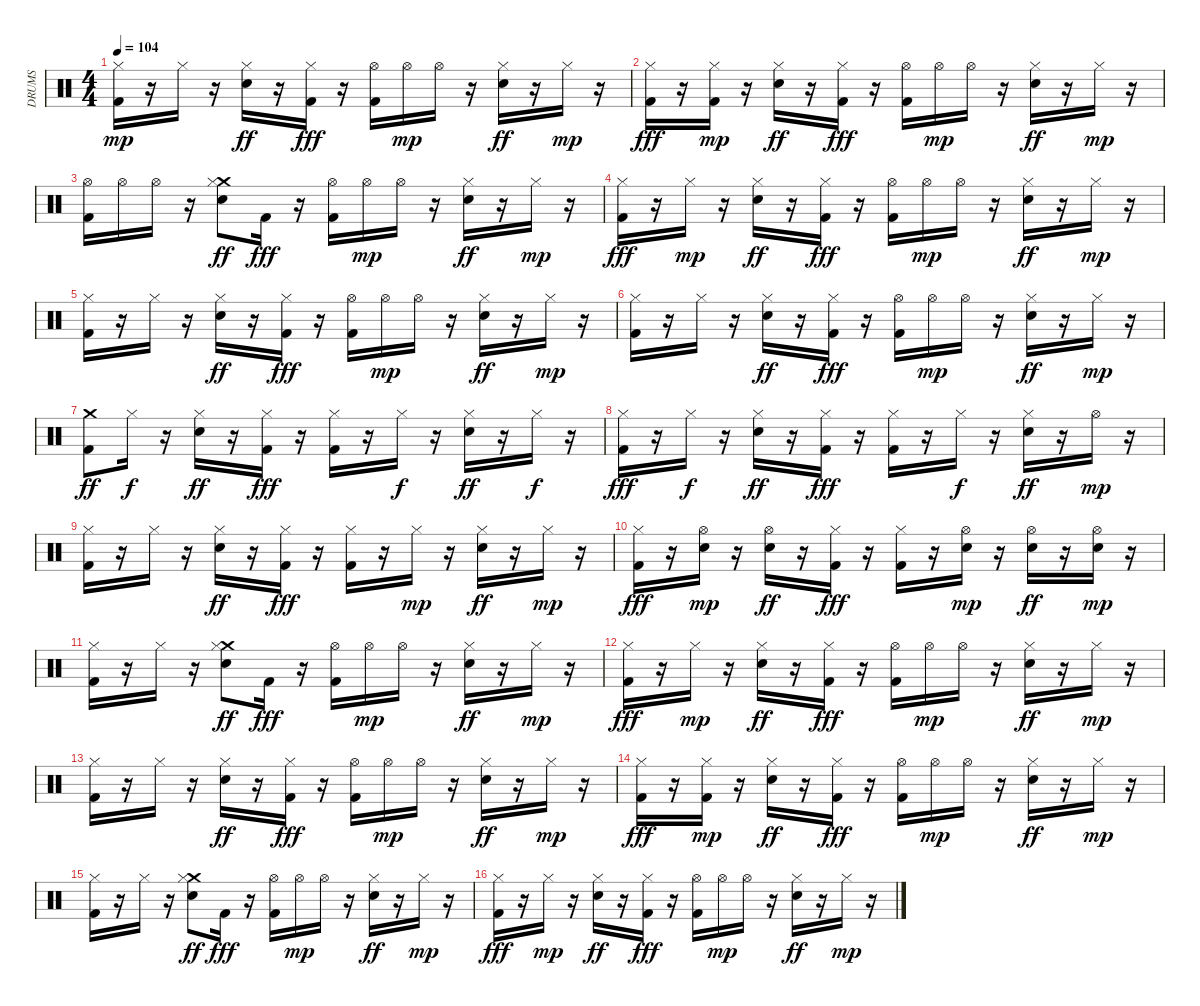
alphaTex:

\track ("DRUMS" "DRUMS") {instrument percussion}
\staff {score}
\articulation defaults
\ts (4 4)
\tempo 104
\clef neutral
\ks c
("Kick (hit) 2" "Hi-Hat (closed)").16{dy mp} r.16 "Hi-Hat (closed)".16 r.16 ("Hi-Hat (closed)" "Snare (hit) 2").16{dy ff} r.16 ("Hi-Hat (closed)" "Kick (hit) 2").16{dy fff} r.16 ("Hi-Hat (open)" "Kick (hit) 2").16 "Hi-Hat (open)".16{dy mp} "Hi-Hat (open)".16 r.16 ("Hi-Hat (closed)" "Snare (hit) 2").16{dy ff} r.16 "Hi-Hat (closed)".16{dy mp} r.16 |
("Hi-Hat (closed)" "Kick (hit) 2").16{dy fff} r.16 ("Kick (hit) 2" "Hi-Hat (closed)").16{dy mp} r.16 ("Hi-Hat (closed)" "Snare (hit) 2").16{dy ff} r.16 ("Hi-Hat (closed)" "Kick (hit) 2").16{dy fff} r.16 ("Hi-Hat (open)" "Kick (hit) 2").16 "Hi-Hat (open)".16{dy mp} "Hi-Hat (open)".16 r.16 ("Hi-Hat (closed)" "Snare (hit) 2").16{dy ff} r.16 "Hi-Hat (closed)".16{dy mp} r.16 |
("Kick (hit) 2" "Hi-Hat (open)").16 "Hi-Hat (open)".16 "Hi-Hat (open)".16 r.16 ("Crash medium (hit)" "Hi-Hat (closed)" "Snare (hit) 2").8{dy ff} "Kick (hit) 2".16{dy fff} r.16 ("Hi-Hat (open)" "Kick (hit) 2").16 "Hi-Hat (open)".16{dy mp} "Hi-Hat (open)".16 r.16 ("Hi-Hat (closed)" "Snare (hit) 2").16{dy ff} r.16 "Hi-Hat (closed)".16{dy mp} r.16 |
("Hi-Hat (closed)" "Kick (hit) 2").16{dy fff} r.16 "Hi-Hat (closed)".16{dy mp} r.16 ("Hi-Hat (closed)" "Snare (hit) 2").16{dy ff} r.16 ("Hi-Hat (closed)" "Kick (hit) 2").16{dy fff} r.16 ("Hi-Hat (open)" "Kick (hit) 2").16 "Hi-Hat (open)".16{dy mp} "Hi-Hat (open)".16 r.16 ("Hi-Hat (closed)" "Snare (hit) 2").16{dy ff} r.16 "Hi-Hat (closed)".16{dy mp} r.16 |
("Kick (hit) 2" "Hi-Hat (closed)").16 r.16 "Hi-Hat (closed)".16 r.16 ("Hi-Hat (closed)" "Snare (hit) 2").16{dy ff} r.16 ("Hi-Hat (closed)" "Kick (hit) 2").16{dy fff} r.16 ("Hi-Hat (open)" "Kick (hit) 2").16 "Hi-Hat (open)".16{dy mp} "Hi-Hat (open)".16 r.16 ("Hi-Hat (closed)" "Snare (hit) 2").16{dy ff} r.16 "Hi-Hat (closed)".16{dy mp} r.16 |
("Kick (hit) 2" "Hi-Hat (closed)").16 r.16 "Hi-Hat (closed)".16 r.16 ("Hi-Hat (closed)" "Snare (hit) 2").16{dy ff} r.16 ("Hi-Hat (closed)" "Kick (hit) 2").16{dy fff} r.16 ("Hi-Hat (open)" "Kick (hit) 2").16 "Hi-Hat (open)".16{dy mp} "Hi-Hat (open)".16 r.16 ("Hi-Hat (closed)" "Snare (hit) 2").16{dy ff} r.16 "Hi-Hat (closed)".16{dy mp} r.16 |
("Kick (hit) 2" "Crash medium (hit)").8{dy ff} "Hi-Hat (closed)".16{dy f} r.16 ("Hi-Hat (closed)" "Snare (hit) 2").16{dy ff} r.16 ("Hi-Hat (closed)" "Kick (hit) 2").16{dy fff} r.16 ("Hi-Hat (closed)" "Kick (hit) 2").16 r.16 "Hi-Hat (closed)".16{dy f} r.16 ("Hi-Hat (closed)" "Snare (hit) 2").16{dy ff} r.16 "Hi-Hat (closed)".16{dy f} r.16 |
("Kick (hit) 2" "Hi-Hat (closed)").16{dy fff} r.16 "Hi-Hat (closed)".16{dy f} r.16 ("Hi-Hat (closed)" "Snare (hit) 2").16{dy ff} r.16 ("Hi-Hat (closed)" "Kick (hit) 2").16{dy fff} r.16 ("Hi-Hat (closed)" "Kick (hit) 2").16 r.16 "Hi-Hat (closed)".16{dy f} r.16 ("Hi-Hat (closed)" "Snare (hit) 2").16{dy ff} r.16 "Hi-Hat (open)".16{dy mp} r.16 |
("Kick (hit) 2" "Hi-Hat (closed)").16 r.16 "Hi-Hat (closed)".16 r.16 ("Hi-Hat (closed)" "Snare (hit) 2").16{dy ff} r.16 ("Hi-Hat (closed)" "Kick (hit) 2").16{dy fff} r.16 ("Hi-Hat (closed)" "Kick (hit) 2").16 r.16 "Hi-Hat (closed)".16{dy mp} r.16 ("Hi-Hat (closed)" "Snare (hit) 2").16{dy ff} r.16 "Hi-Hat (closed)".16{dy mp} r.16 |
("Hi-Hat (closed)" "Kick (hit) 2").16{dy fff} r.16 ("Snare (hit) 2" "Hi-Hat (open)").16{dy mp} r.16 ("Hi-Hat (open)" "Snare (hit) 2").16{dy ff} r.16 ("Hi-Hat (closed)" "Kick (hit) 2").16{dy fff} r.16 ("Hi-Hat (closed)" "Kick (hit) 2").16 r.16 ("Snare (hit) 2" "Hi-Hat (open)").16{dy mp} r.16 ("Hi-Hat (open)" "Snare (hit) 2").16{dy ff} r.16 ("Snare (hit) 2" "Hi-Hat (open)").16{dy mp} r.16 |
("Kick (hit) 2" "Hi-Hat (closed)").16 r.16 "Hi-Hat (closed)".16 r.16 ("Crash medium (hit)" "Hi-Hat (closed)" "Snare (hit) 2").8{dy ff} "Kick (hit) 2".16{dy fff} r.16 ("Hi-Hat (open)" "Kick (hit) 2").16 "Hi-Hat (open)".16{dy mp} "Hi-Hat (open)".16 r.16 ("Hi-Hat (closed)" "Snare (hit) 2").16{dy ff} r.16 "Hi-Hat (closed)".16{dy mp} r.16 |
("Hi-Hat (closed)" "Kick (hit) 2").16{dy fff} r.16 "Hi-Hat (closed)".16{dy mp} r.16 ("Hi-Hat (closed)" "Snare (hit) 2").16{dy ff} r.16 ("Hi-Hat (closed)" "Kick (hit) 2").16{dy fff} r.16 ("Hi-Hat (open)" "Kick (hit) 2").16 "Hi-Hat (open)".16{dy mp} "Hi-Hat (open)".16 r.16 ("Hi-Hat (closed)" "Snare (hit) 2").16{dy ff} r.16 "Hi-Hat (closed)".16{dy mp} r.16 |
("Kick (hit) 2" "Hi-Hat (closed)").16 r.16 "Hi-Hat (closed)".16 r.16 ("Hi-Hat (closed)" "Snare (hit) 2").16{dy ff} r.16 ("Hi-Hat (closed)" "Kick (hit) 2").16{dy fff} r.16 ("Hi-Hat (open)" "Kick (hit) 2").16 "Hi-Hat (open)".16{dy mp} "Hi-Hat (open)".16 r.16 ("Hi-Hat (closed)" "Snare (hit) 2").16{dy ff} r.16 "Hi-Hat (closed)".16{dy mp} r.16 |
("Hi-Hat (closed)" "Kick (hit) 2").16{dy fff} r.16 ("Kick (hit) 2" "Hi-Hat (closed)").16{dy mp} r.16 ("Hi-Hat (closed)" "Snare (hit) 2").16{dy ff} r.16 ("Hi-Hat (closed)" "Kick (hit) 2").16{dy fff} r.16 ("Hi-Hat (open)" "Kick (hit) 2").16 "Hi-Hat (open)".16{dy mp} "Hi-Hat (open)".16 r.16 ("Hi-Hat (closed)" "Snare (hit) 2").16{dy ff} r.16 "Hi-Hat (closed)".16{dy mp} r.16 |
("Kick (hit) 2" "Hi-Hat (closed)").16 r.16 "Hi-Hat (closed)".16 r.16 ("Crash medium (hit)" "Hi-Hat (closed)" "Snare (hit) 2").8{dy ff} "Kick (hit) 2".16{dy fff} r.16 ("Hi-Hat (open)" "Kick (hit) 2").16 "Hi-Hat (open)".16{dy mp} "Hi-Hat (open)".16 r.16 ("Hi-Hat (closed)" "Snare (hit) 2").16{dy ff} r.16 "Hi-Hat (closed)".16{dy mp} r.16 |
("Hi-Hat (closed)" "Kick (hit) 2").16{dy fff} r.16 "Hi-Hat (closed)".16{dy mp} r.16 ("Hi-Hat (closed)" "Snare (hit) 2").16{dy ff} r.16 ("Hi-Hat (closed)" "Kick (hit) 2").16{dy fff} r.16 ("Hi-Hat (open)" "Kick (hit) 2").16 "Hi-Hat (open)".16{dy mp} "Hi-Hat (open)".16 r.16 ("Hi-Hat (closed)" "Snare (hit) 2").16{dy ff} r.16 "Hi-Hat (closed)".16{dy mp} r.16
